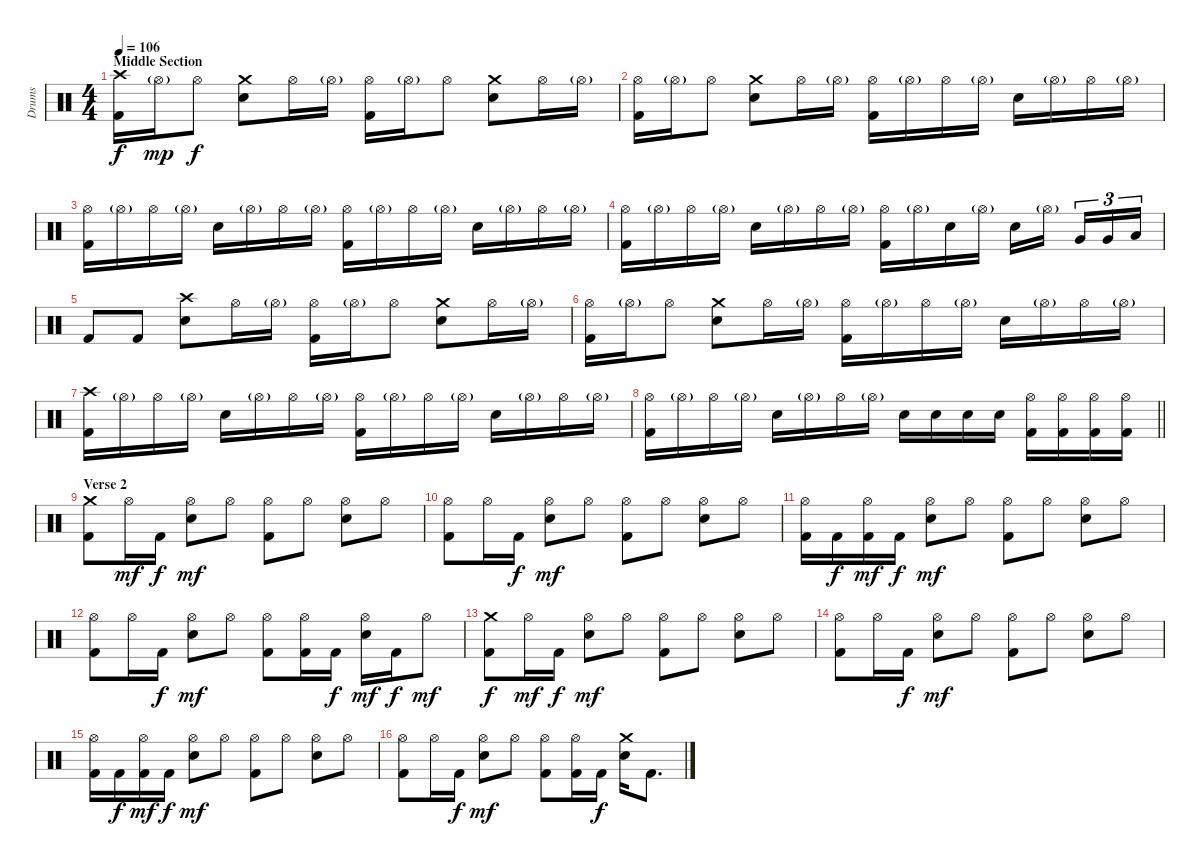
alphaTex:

\track ("Drums" "Drums") {instrument percussion}
\staff {score}
\articulation defaults
\ts (4 4)
\section ("" "Middle Section")
\tempo 106
\clef neutral
\ks c
("Crash high (hit)" "Kick (hit) 2").16{dy f} "Hi-Hat (open)"{g}.16{dy mp} "Hi-Hat (open)".8{dy f} ("Crash medium (hit)" "Electric Snare (hit)").8 "Hi-Hat (open)".16 "Hi-Hat (open)"{g}.16 ("Hi-Hat (open)" "Kick (hit) 2").16 "Hi-Hat (open)"{g}.16 "Hi-Hat (open)".8 ("Crash medium (hit)" "Electric Snare (hit)").8 "Hi-Hat (open)".16 "Hi-Hat (open)"{g}.16 |
("Hi-Hat (open)" "Kick (hit) 2").16 "Hi-Hat (open)"{g}.16 "Hi-Hat (open)".8 ("Crash medium (hit)" "Electric Snare (hit)").8 "Hi-Hat (open)".16 "Hi-Hat (open)"{g}.16 ("Hi-Hat (open)" "Kick (hit) 2").16 "Hi-Hat (open)"{g}.16 "Hi-Hat (open)".16 "Hi-Hat (open)"{g}.16 "Electric Snare (hit)".16 "Hi-Hat (open)"{g}.16 "Hi-Hat (open)".16 "Hi-Hat (open)"{g}.16 |
("Hi-Hat (open)" "Kick (hit) 2").16 "Hi-Hat (open)"{g}.16 "Hi-Hat (open)".16 "Hi-Hat (open)"{g}.16 "Electric Snare (hit)".16 "Hi-Hat (open)"{g}.16 "Hi-Hat (open)".16 "Hi-Hat (open)"{g}.16 ("Hi-Hat (open)" "Kick (hit) 2").16 "Hi-Hat (open)"{g}.16 "Hi-Hat (open)".16 "Hi-Hat (open)"{g}.16 "Electric Snare (hit)".16 "Hi-Hat (open)"{g}.16 "Hi-Hat (open)".16 "Hi-Hat (open)"{g}.16 |
("Hi-Hat (open)" "Kick (hit) 2").16 "Hi-Hat (open)"{g}.16 "Hi-Hat (open)".16 "Hi-Hat (open)"{g}.16 "Electric Snare (hit)".16 "Hi-Hat (open)"{g}.16 "Hi-Hat (open)".16 "Hi-Hat (open)"{g}.16 ("Hi-Hat (open)" "Kick (hit) 2").16 "Hi-Hat (open)"{g}.16 "Electric Snare (hit)".16 "Hi-Hat (open)"{g}.16 "Electric Snare (hit)".16 "Hi-Hat (open)"{g}.16{beam splitsecondary} "Very Low Tom (hit)".16{tu (3 2)} "Very Low Tom (hit)".16{tu (3 2)} "Low Floor Tom (hit)".16{tu (3 2)} |
"Kick (hit) 2".8 "Kick (hit) 2".8 ("Crash high (hit)" "Electric Snare (hit)").8 "Hi-Hat (open)".16 "Hi-Hat (open)"{g}.16 ("Hi-Hat (open)" "Kick (hit) 2").16 "Hi-Hat (open)"{g}.16 "Hi-Hat (open)".8 ("Crash medium (hit)" "Electric Snare (hit)").8 "Hi-Hat (open)".16 "Hi-Hat (open)"{g}.16 |
("Hi-Hat (open)" "Kick (hit) 2").16 "Hi-Hat (open)"{g}.16 "Hi-Hat (open)".8 ("Crash medium (hit)" "Electric Snare (hit)").8 "Hi-Hat (open)".16 "Hi-Hat (open)"{g}.16 ("Hi-Hat (open)" "Kick (hit) 2").16 "Hi-Hat (open)"{g}.16 "Hi-Hat (open)".16 "Hi-Hat (open)"{g}.16 "Electric Snare (hit)".16 "Hi-Hat (open)"{g}.16 "Hi-Hat (open)".16 "Hi-Hat (open)"{g}.16 |
("Crash high (hit)" "Kick (hit) 2").16 "Hi-Hat (open)"{g}.16 "Hi-Hat (open)".16 "Hi-Hat (open)"{g}.16 "Electric Snare (hit)".16 "Hi-Hat (open)"{g}.16 "Hi-Hat (open)".16 "Hi-Hat (open)"{g}.16 ("Hi-Hat (open)" "Kick (hit) 2").16 "Hi-Hat (open)"{g}.16 "Hi-Hat (open)".16 "Hi-Hat (open)"{g}.16 "Electric Snare (hit)".16 "Hi-Hat (open)"{g}.16 "Hi-Hat (open)".16 "Hi-Hat (open)"{g}.16 |
\barLineRight lightlight
("Hi-Hat (open)" "Kick (hit) 2").16 "Hi-Hat (open)"{g}.16 "Hi-Hat (open)".16 "Hi-Hat (open)"{g}.16 "Electric Snare (hit)".16 "Hi-Hat (open)"{g}.16 "Hi-Hat (open)".16 "Hi-Hat (open)"{g}.16 "Electric Snare (hit)".16 "Electric Snare (hit)".16 "Electric Snare (hit)".16 "Electric Snare (hit)".16 ("Hi-Hat (open)" "Kick (hit) 2").16 ("Hi-Hat (open)" "Kick (hit) 2").16 ("Hi-Hat (open)" "Kick (hit) 2").16 ("Hi-Hat (open)" "Kick (hit) 2").16 |
\section ("" "Verse 2")
("Crash medium (hit)" "Kick (hit) 2").8 "Hi-Hat (open)".16{dy mf} "Kick (hit) 2".16{dy f} ("Hi-Hat (open)" "Electric Snare (hit)").8{dy mf} "Hi-Hat (open)".8 ("Hi-Hat (open)" "Kick (hit) 2").8 "Hi-Hat (open)".8 ("Hi-Hat (open)" "Electric Snare (hit)").8 "Hi-Hat (open)".8 |
("Hi-Hat (open)" "Kick (hit) 2").8 "Hi-Hat (open)".16 "Kick (hit) 2".16{dy f} ("Hi-Hat (open)" "Electric Snare (hit)").8{dy mf} "Hi-Hat (open)".8 ("Hi-Hat (open)" "Kick (hit) 2").8 "Hi-Hat (open)".8 ("Hi-Hat (open)" "Electric Snare (hit)").8 "Hi-Hat (open)".8 |
("Hi-Hat (open)" "Kick (hit) 2").16 "Kick (hit) 2".16{dy f} ("Hi-Hat (open)" "Kick (hit) 2").16{dy mf} "Kick (hit) 2".16{dy f} ("Hi-Hat (open)" "Electric Snare (hit)").8{dy mf} "Hi-Hat (open)".8 ("Hi-Hat (open)" "Kick (hit) 2").8 "Hi-Hat (open)".8 ("Hi-Hat (open)" "Electric Snare (hit)").8 "Hi-Hat (open)".8 |
("Hi-Hat (open)" "Kick (hit) 2").8 "Hi-Hat (open)".16 "Kick (hit) 2".16{dy f} ("Hi-Hat (open)" "Electric Snare (hit)").8{dy mf} "Hi-Hat (open)".8 ("Hi-Hat (open)" "Kick (hit) 2").8 ("Hi-Hat (open)" "Kick (hit) 2").16 "Kick (hit) 2".16{dy f} ("Hi-Hat (open)" "Electric Snare (hit)").16{dy mf} "Kick (hit) 2".16{dy f} "Hi-Hat (open)".8{dy mf} |
("Crash medium (hit)" "Kick (hit) 2").8{dy f} "Hi-Hat (open)".16{dy mf} "Kick (hit) 2".16{dy f} ("Hi-Hat (open)" "Electric Snare (hit)").8{dy mf} "Hi-Hat (open)".8 ("Hi-Hat (open)" "Kick (hit) 2").8 "Hi-Hat (open)".8 ("Hi-Hat (open)" "Electric Snare (hit)").8 "Hi-Hat (open)".8 |
("Hi-Hat (open)" "Kick (hit) 2").8 "Hi-Hat (open)".16 "Kick (hit) 2".16{dy f} ("Hi-Hat (open)" "Electric Snare (hit)").8{dy mf} "Hi-Hat (open)".8 ("Hi-Hat (open)" "Kick (hit) 2").8 "Hi-Hat (open)".8 ("Hi-Hat (open)" "Electric Snare (hit)").8 "Hi-Hat (open)".8 |
("Hi-Hat (open)" "Kick (hit) 2").16 "Kick (hit) 2".16{dy f} ("Hi-Hat (open)" "Kick (hit) 2").16{dy mf} "Kick (hit) 2".16{dy f} ("Hi-Hat (open)" "Electric Snare (hit)").8{dy mf} "Hi-Hat (open)".8 ("Hi-Hat (open)" "Kick (hit) 2").8 "Hi-Hat (open)".8 ("Hi-Hat (open)" "Electric Snare (hit)").8 "Hi-Hat (open)".8 |
("Hi-Hat (open)" "Kick (hit) 2").8 "Hi-Hat (open)".16 "Kick (hit) 2".16{dy f} ("Hi-Hat (open)" "Electric Snare (hit)").8{dy mf} "Hi-Hat (open)".8 ("Hi-Hat (open)" "Kick (hit) 2").8 ("Hi-Hat (open)" "Kick (hit) 2").16 "Kick (hit) 2".16{dy f} ("Crash medium (hit)" "Electric Snare (hit)").16 "Kick (hit) 2".8{d}
